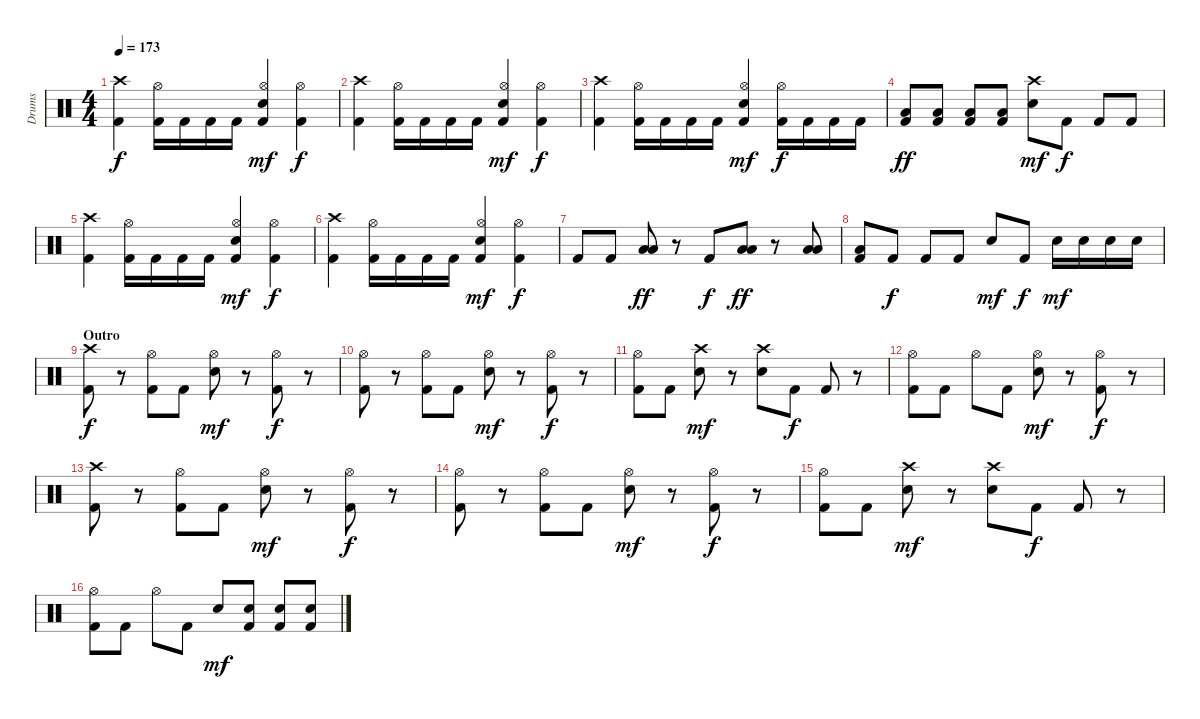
\track ("Drums" "Drums") {instrument percussion}
\staff {score}
\articulation defaults
\ts (4 4)
\tempo 173
\clef neutral
\ks c
("Crash high (hit)" "Kick (hit) 2").4{dy f} ("Hi-Hat (open)" "Kick (hit) 2").16 "Kick (hit) 2".16 "Kick (hit) 2".16 "Kick (hit) 2".16 ("Hi-Hat (open)" "Snare (hit) 2" "Kick (hit) 2").4{dy mf} ("Hi-Hat (open)" "Kick (hit) 2").4{dy f} |
("Crash high (hit)" "Kick (hit) 2").4 ("Hi-Hat (open)" "Kick (hit) 2").16 "Kick (hit) 2".16 "Kick (hit) 2".16 "Kick (hit) 2".16 ("Hi-Hat (open)" "Snare (hit) 2" "Kick (hit) 2").4{dy mf} ("Hi-Hat (open)" "Kick (hit) 2").4{dy f} |
("Crash high (hit)" "Kick (hit) 2").4 ("Hi-Hat (open)" "Kick (hit) 2").16 "Kick (hit) 2".16 "Kick (hit) 2".16 "Kick (hit) 2".16 ("Hi-Hat (open)" "Snare (hit) 2" "Kick (hit) 2").4{dy mf} ("Hi-Hat (open)" "Kick (hit) 2").16{dy f} "Kick (hit) 2".16 "Kick (hit) 2".16 "Kick (hit) 2".16 |
("Low Tom (hit)" "Kick (hit) 2").8{dy ff} ("Low Tom (hit)" "Kick (hit) 2").8 ("Low Tom (hit)" "Kick (hit) 2").8 ("Low Tom (hit)" "Kick (hit) 2").8 ("Crash high (hit)" "Snare (hit) 2").8{dy mf} "Kick (hit) 2".8{dy f} "Kick (hit) 2".8 "Kick (hit) 2".8 |
("Crash high (hit)" "Kick (hit) 2").4 ("Hi-Hat (open)" "Kick (hit) 2").16 "Kick (hit) 2".16 "Kick (hit) 2".16 "Kick (hit) 2".16 ("Hi-Hat (open)" "Snare (hit) 2" "Kick (hit) 2").4{dy mf} ("Hi-Hat (open)" "Kick (hit) 2").4{dy f} |
("Crash high (hit)" "Kick (hit) 2").4 ("Hi-Hat (open)" "Kick (hit) 2").16 "Kick (hit) 2".16 "Kick (hit) 2".16 "Kick (hit) 2".16 ("Hi-Hat (open)" "Snare (hit) 2" "Kick (hit) 2").4{dy mf} ("Hi-Hat (open)" "Kick (hit) 2").4{dy f} |
"Kick (hit) 2".8 "Kick (hit) 2".8 ("Low Tom (hit)" "Low Floor Tom (hit)").8{dy ff} r.8 "Kick (hit) 2".8{dy f} ("Low Tom (hit)" "Low Floor Tom (hit)").8{dy ff} r.8 ("Low Tom (hit)" "Low Floor Tom (hit)").8 |
("Low Tom (hit)" "Kick (hit) 2").8 "Kick (hit) 2".8{dy f} "Kick (hit) 2".8 "Kick (hit) 2".8 "Snare (hit) 2".8{dy mf} "Kick (hit) 2".8{dy f} "Snare (hit) 2".16{dy mf} "Snare (hit) 2".16 "Snare (hit) 2".16 "Snare (hit) 2".16 |
\section ("" "Outro")
("Crash high (hit)" "Kick (hit) 2").8{dy f} r.8 ("Hi-Hat (open)" "Kick (hit) 2").8 "Kick (hit) 2".8 ("Hi-Hat (open)" "Snare (hit) 2").8{dy mf} r.8 ("Hi-Hat (open)" "Kick (hit) 2").8{dy f} r.8 |
("Hi-Hat (open)" "Kick (hit) 2").8 r.8 ("Hi-Hat (open)" "Kick (hit) 2").8 "Kick (hit) 2".8 ("Hi-Hat (open)" "Snare (hit) 2").8{dy mf} r.8 ("Hi-Hat (open)" "Kick (hit) 2").8{dy f} r.8 |
("Hi-Hat (open)" "Kick (hit) 2").8 "Kick (hit) 2".8 ("Crash high (hit)" "Snare (hit) 2").8{dy mf} r.8 ("Crash high (hit)" "Snare (hit) 2").8 "Kick (hit) 2".8{dy f} "Kick (hit) 2".8 r.8 |
("Hi-Hat (open)" "Kick (hit) 2").8 "Kick (hit) 2".8 "Hi-Hat (open)".8 "Kick (hit) 2".8 ("Hi-Hat (open)" "Snare (hit) 2").8{dy mf} r.8 ("Hi-Hat (open)" "Kick (hit) 2").8{dy f} r.8 |
("Crash high (hit)" "Kick (hit) 2").8 r.8 ("Hi-Hat (open)" "Kick (hit) 2").8 "Kick (hit) 2".8 ("Hi-Hat (open)" "Snare (hit) 2").8{dy mf} r.8 ("Hi-Hat (open)" "Kick (hit) 2").8{dy f} r.8 |
("Hi-Hat (open)" "Kick (hit) 2").8 r.8 ("Hi-Hat (open)" "Kick (hit) 2").8 "Kick (hit) 2".8 ("Hi-Hat (open)" "Snare (hit) 2").8{dy mf} r.8 ("Hi-Hat (open)" "Kick (hit) 2").8{dy f} r.8 |
("Hi-Hat (open)" "Kick (hit) 2").8 "Kick (hit) 2".8 ("Crash high (hit)" "Snare (hit) 2").8{dy mf} r.8 ("Crash high (hit)" "Snare (hit) 2").8 "Kick (hit) 2".8{dy f} "Kick (hit) 2".8 r.8 |
("Hi-Hat (open)" "Kick (hit) 2").8 "Kick (hit) 2".8 "Hi-Hat (open)".8 "Kick (hit) 2".8 "Snare (hit) 2".8{dy mf} ("Snare (hit) 2" "Kick (hit) 2").8 ("Snare (hit) 2" "Kick (hit) 2").8 ("Snare (hit) 2" "Kick (hit) 2").8
